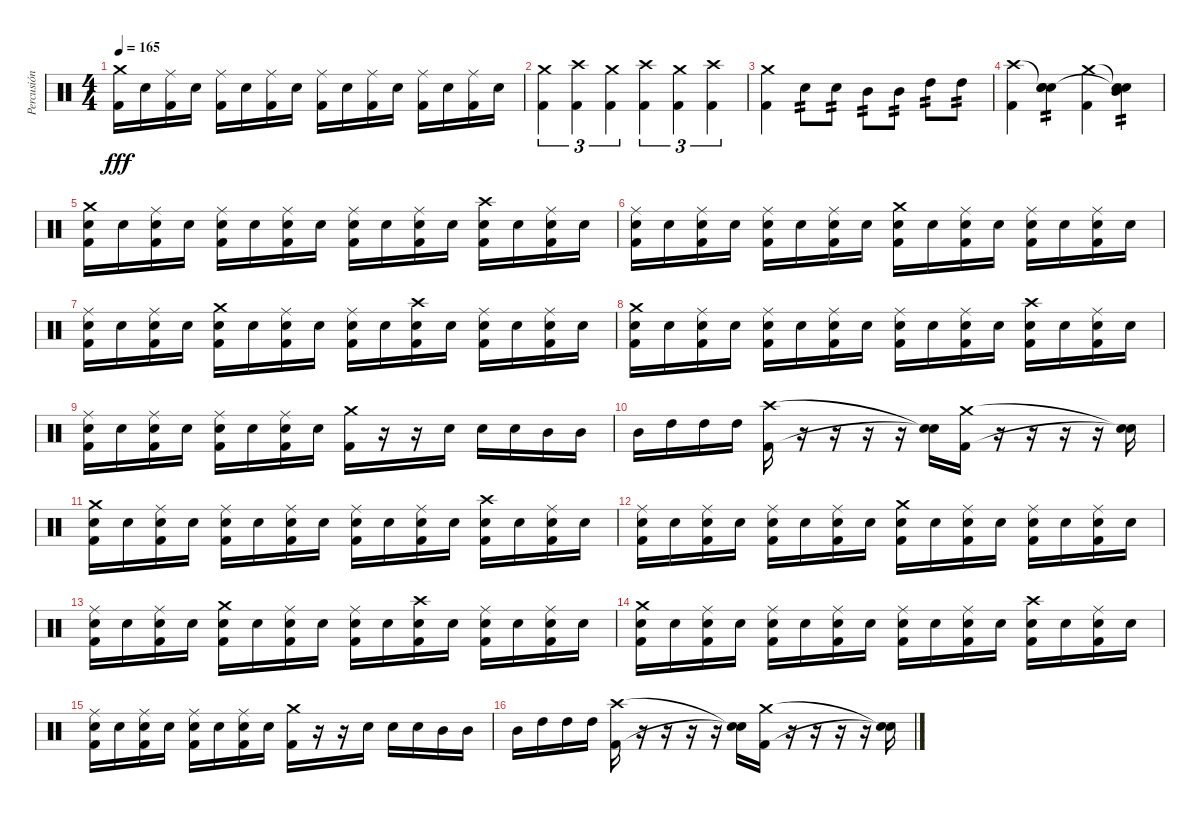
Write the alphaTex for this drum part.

\track ("Percusión" "Percusión") {instrument percussion}
\staff {score}
\articulation defaults
\ts (4 4)
\tempo 165
\clef neutral
\ks c
("Crash medium (hit)" "Kick (hit) 2").16{dy fff} "Electric Snare (hit)".16 ("Ride (middle)" "Kick (hit) 2").16 "Electric Snare (hit)".16 ("Ride (middle)" "Kick (hit) 2").16 "Electric Snare (hit)".16 ("Ride (middle)" "Kick (hit) 2").16 "Electric Snare (hit)".16 ("Ride (middle)" "Kick (hit) 2").16 "Electric Snare (hit)".16 ("Ride (middle)" "Kick (hit) 2").16 "Electric Snare (hit)".16 ("Ride (middle)" "Kick (hit) 2").16 "Electric Snare (hit)".16 ("Ride (middle)" "Kick (hit) 2").16 "Electric Snare (hit)".16 |
("Crash medium (hit)" "Kick (hit) 2").4{tu (3 2)} ("Crash high (hit)" "Kick (hit) 2").4{tu (3 2)} ("Crash medium (hit)" "Kick (hit) 2").4{tu (3 2)} ("Crash high (hit)" "Kick (hit) 2").4{tu (3 2)} ("Crash medium (hit)" "Kick (hit) 2").4{tu (3 2)} ("Crash high (hit)" "Kick (hit) 2").4{tu (3 2)} |
("Crash medium (hit)" "Kick (hit) 2").4 "Electric Snare (hit)".8{tp 2} "Electric Snare (hit)".8{tp 2} "Mid Tom (hit)".8{tp 2} "Mid Tom (hit)".8{tp 2} "High Tom (hit)".8{tp 2} "High Tom (hit)".8{tp 2} |
("Crash high (hit)" "Kick (hit) 2").4 ("Snare (hit)"{t} "Electric Snare (hit)" "Snare (hit)").4{tp 2} ("Crash medium (hit)" "Kick (hit) 2").4 ("Snare (hit)"{t} "Mid Tom (hit)" "Snare (hit)"{t}).4{tp 2} |
("Crash medium (hit)" "Electric Snare (hit)" "Kick (hit) 2").16 "Electric Snare (hit)".16 ("Ride (middle)" "Electric Snare (hit)" "Kick (hit) 2").16 "Electric Snare (hit)".16 ("Ride (middle)" "Electric Snare (hit)" "Kick (hit) 2").16 "Electric Snare (hit)".16 ("Ride (middle)" "Electric Snare (hit)" "Kick (hit) 2").16 "Electric Snare (hit)".16 ("Ride (middle)" "Electric Snare (hit)" "Kick (hit) 2").16 "Electric Snare (hit)".16 ("Ride (middle)" "Electric Snare (hit)" "Kick (hit) 2").16 "Electric Snare (hit)".16 ("Crash high (hit)" "Electric Snare (hit)" "Kick (hit) 2").16 "Electric Snare (hit)".16 ("Ride (middle)" "Electric Snare (hit)" "Kick (hit) 2").16 "Electric Snare (hit)".16 |
("Ride (middle)" "Electric Snare (hit)" "Kick (hit) 2").16 "Electric Snare (hit)".16 ("Ride (middle)" "Electric Snare (hit)" "Kick (hit) 2").16 "Electric Snare (hit)".16 ("Ride (middle)" "Electric Snare (hit)" "Kick (hit) 2").16 "Electric Snare (hit)".16 ("Ride (middle)" "Electric Snare (hit)" "Kick (hit) 2").16 "Electric Snare (hit)".16 ("Crash medium (hit)" "Electric Snare (hit)" "Kick (hit) 2").16 "Electric Snare (hit)".16 ("Ride (middle)" "Electric Snare (hit)" "Kick (hit) 2").16 "Electric Snare (hit)".16 ("Ride (middle)" "Electric Snare (hit)" "Kick (hit) 2").16 "Electric Snare (hit)".16 ("Ride (middle)" "Electric Snare (hit)" "Kick (hit) 2").16 "Electric Snare (hit)".16 |
("Ride (middle)" "Electric Snare (hit)" "Kick (hit) 2").16 "Electric Snare (hit)".16 ("Ride (middle)" "Electric Snare (hit)" "Kick (hit) 2").16 "Electric Snare (hit)".16 ("Crash medium (hit)" "Electric Snare (hit)" "Kick (hit) 2").16 "Electric Snare (hit)".16 ("Ride (middle)" "Electric Snare (hit)" "Kick (hit) 2").16 "Electric Snare (hit)".16 ("Ride (middle)" "Electric Snare (hit)" "Kick (hit) 2").16 "Electric Snare (hit)".16 ("Crash high (hit)" "Electric Snare (hit)" "Kick (hit) 2").16 "Electric Snare (hit)".16 ("Ride (middle)" "Electric Snare (hit)" "Kick (hit) 2").16 "Electric Snare (hit)".16 ("Ride (middle)" "Electric Snare (hit)" "Kick (hit) 2").16 "Electric Snare (hit)".16 |
("Crash medium (hit)" "Electric Snare (hit)" "Kick (hit) 2").16 "Electric Snare (hit)".16 ("Ride (middle)" "Electric Snare (hit)" "Kick (hit) 2").16 "Electric Snare (hit)".16 ("Ride (middle)" "Electric Snare (hit)" "Kick (hit) 2").16 "Electric Snare (hit)".16 ("Ride (middle)" "Electric Snare (hit)" "Kick (hit) 2").16 "Electric Snare (hit)".16 ("Ride (middle)" "Electric Snare (hit)" "Kick (hit) 2").16 "Electric Snare (hit)".16 ("Ride (middle)" "Electric Snare (hit)" "Kick (hit) 2").16 "Electric Snare (hit)".16 ("Crash high (hit)" "Electric Snare (hit)" "Kick (hit) 2").16 "Electric Snare (hit)".16 ("Ride (middle)" "Electric Snare (hit)" "Kick (hit) 2").16 "Electric Snare (hit)".16 |
("Ride (middle)" "Electric Snare (hit)" "Kick (hit) 2").16 "Electric Snare (hit)".16 ("Ride (middle)" "Electric Snare (hit)" "Kick (hit) 2").16 "Electric Snare (hit)".16 ("Ride (middle)" "Electric Snare (hit)" "Kick (hit) 2").16 "Electric Snare (hit)".16 ("Ride (middle)" "Electric Snare (hit)" "Kick (hit) 2").16 "Electric Snare (hit)".16 ("Crash medium (hit)" "Kick (hit) 2").16 r.16 r.16 "Electric Snare (hit)".16 "Electric Snare (hit)".16 "Electric Snare (hit)".16 "Mid Tom (hit)".16 "Mid Tom (hit)".16 |
"Mid Tom (hit)".16 "High Tom (hit)".16 "High Tom (hit)".16 "High Tom (hit)".16 ("Crash high (hit)" "Kick (hit) 2").16 r.16 r.16 r.16 r.16 ("Snare (hit)"{t} "Snare (hit)"{t}).16 ("Crash medium (hit)" "Kick (hit) 2").16 r.16 r.16 r.16 r.16 ("Snare (hit)"{t} "Snare (hit)"{t}).16 |
("Crash medium (hit)" "Electric Snare (hit)" "Kick (hit) 2").16 "Electric Snare (hit)".16 ("Ride (middle)" "Electric Snare (hit)" "Kick (hit) 2").16 "Electric Snare (hit)".16 ("Ride (middle)" "Electric Snare (hit)" "Kick (hit) 2").16 "Electric Snare (hit)".16 ("Ride (middle)" "Electric Snare (hit)" "Kick (hit) 2").16 "Electric Snare (hit)".16 ("Ride (middle)" "Electric Snare (hit)" "Kick (hit) 2").16 "Electric Snare (hit)".16 ("Ride (middle)" "Electric Snare (hit)" "Kick (hit) 2").16 "Electric Snare (hit)".16 ("Crash high (hit)" "Electric Snare (hit)" "Kick (hit) 2").16 "Electric Snare (hit)".16 ("Ride (middle)" "Electric Snare (hit)" "Kick (hit) 2").16 "Electric Snare (hit)".16 |
("Ride (middle)" "Electric Snare (hit)" "Kick (hit) 2").16 "Electric Snare (hit)".16 ("Ride (middle)" "Electric Snare (hit)" "Kick (hit) 2").16 "Electric Snare (hit)".16 ("Ride (middle)" "Electric Snare (hit)" "Kick (hit) 2").16 "Electric Snare (hit)".16 ("Ride (middle)" "Electric Snare (hit)" "Kick (hit) 2").16 "Electric Snare (hit)".16 ("Crash medium (hit)" "Electric Snare (hit)" "Kick (hit) 2").16 "Electric Snare (hit)".16 ("Ride (middle)" "Electric Snare (hit)" "Kick (hit) 2").16 "Electric Snare (hit)".16 ("Ride (middle)" "Electric Snare (hit)" "Kick (hit) 2").16 "Electric Snare (hit)".16 ("Ride (middle)" "Electric Snare (hit)" "Kick (hit) 2").16 "Electric Snare (hit)".16 |
("Ride (middle)" "Electric Snare (hit)" "Kick (hit) 2").16 "Electric Snare (hit)".16 ("Ride (middle)" "Electric Snare (hit)" "Kick (hit) 2").16 "Electric Snare (hit)".16 ("Crash medium (hit)" "Electric Snare (hit)" "Kick (hit) 2").16 "Electric Snare (hit)".16 ("Ride (middle)" "Electric Snare (hit)" "Kick (hit) 2").16 "Electric Snare (hit)".16 ("Ride (middle)" "Electric Snare (hit)" "Kick (hit) 2").16 "Electric Snare (hit)".16 ("Crash high (hit)" "Electric Snare (hit)" "Kick (hit) 2").16 "Electric Snare (hit)".16 ("Ride (middle)" "Electric Snare (hit)" "Kick (hit) 2").16 "Electric Snare (hit)".16 ("Ride (middle)" "Electric Snare (hit)" "Kick (hit) 2").16 "Electric Snare (hit)".16 |
("Crash medium (hit)" "Electric Snare (hit)" "Kick (hit) 2").16 "Electric Snare (hit)".16 ("Ride (middle)" "Electric Snare (hit)" "Kick (hit) 2").16 "Electric Snare (hit)".16 ("Ride (middle)" "Electric Snare (hit)" "Kick (hit) 2").16 "Electric Snare (hit)".16 ("Ride (middle)" "Electric Snare (hit)" "Kick (hit) 2").16 "Electric Snare (hit)".16 ("Ride (middle)" "Electric Snare (hit)" "Kick (hit) 2").16 "Electric Snare (hit)".16 ("Ride (middle)" "Electric Snare (hit)" "Kick (hit) 2").16 "Electric Snare (hit)".16 ("Crash high (hit)" "Electric Snare (hit)" "Kick (hit) 2").16 "Electric Snare (hit)".16 ("Ride (middle)" "Electric Snare (hit)" "Kick (hit) 2").16 "Electric Snare (hit)".16 |
("Ride (middle)" "Electric Snare (hit)" "Kick (hit) 2").16 "Electric Snare (hit)".16 ("Ride (middle)" "Electric Snare (hit)" "Kick (hit) 2").16 "Electric Snare (hit)".16 ("Ride (middle)" "Electric Snare (hit)" "Kick (hit) 2").16 "Electric Snare (hit)".16 ("Ride (middle)" "Electric Snare (hit)" "Kick (hit) 2").16 "Electric Snare (hit)".16 ("Crash medium (hit)" "Kick (hit) 2").16 r.16 r.16 "Electric Snare (hit)".16 "Electric Snare (hit)".16 "Electric Snare (hit)".16 "Mid Tom (hit)".16 "Mid Tom (hit)".16 |
"Mid Tom (hit)".16 "High Tom (hit)".16 "High Tom (hit)".16 "High Tom (hit)".16 ("Crash high (hit)" "Kick (hit) 2").16 r.16 r.16 r.16 r.16 ("Snare (hit)"{t} "Snare (hit)"{t}).16 ("Crash medium (hit)" "Kick (hit) 2").16 r.16 r.16 r.16 r.16 ("Snare (hit)"{t} "Snare (hit)"{t}).16
